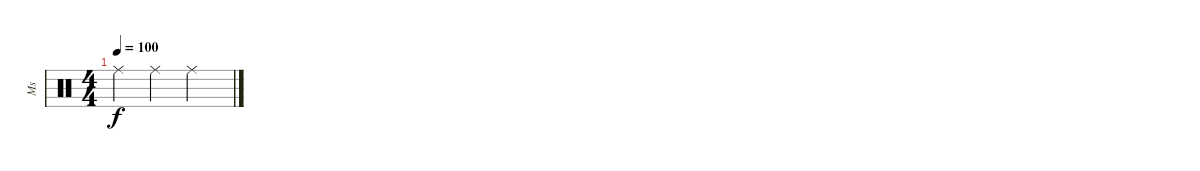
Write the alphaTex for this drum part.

\track ("Ms" "Ms") {instrument percussion}
\staff {score}
\articulation defaults
\ts (4 4)
\tempo 100
\clef neutral
\ks c "Ride (middle)".4{dy f volume 5} "Ride (middle)".4 "Ride (middle)".2
